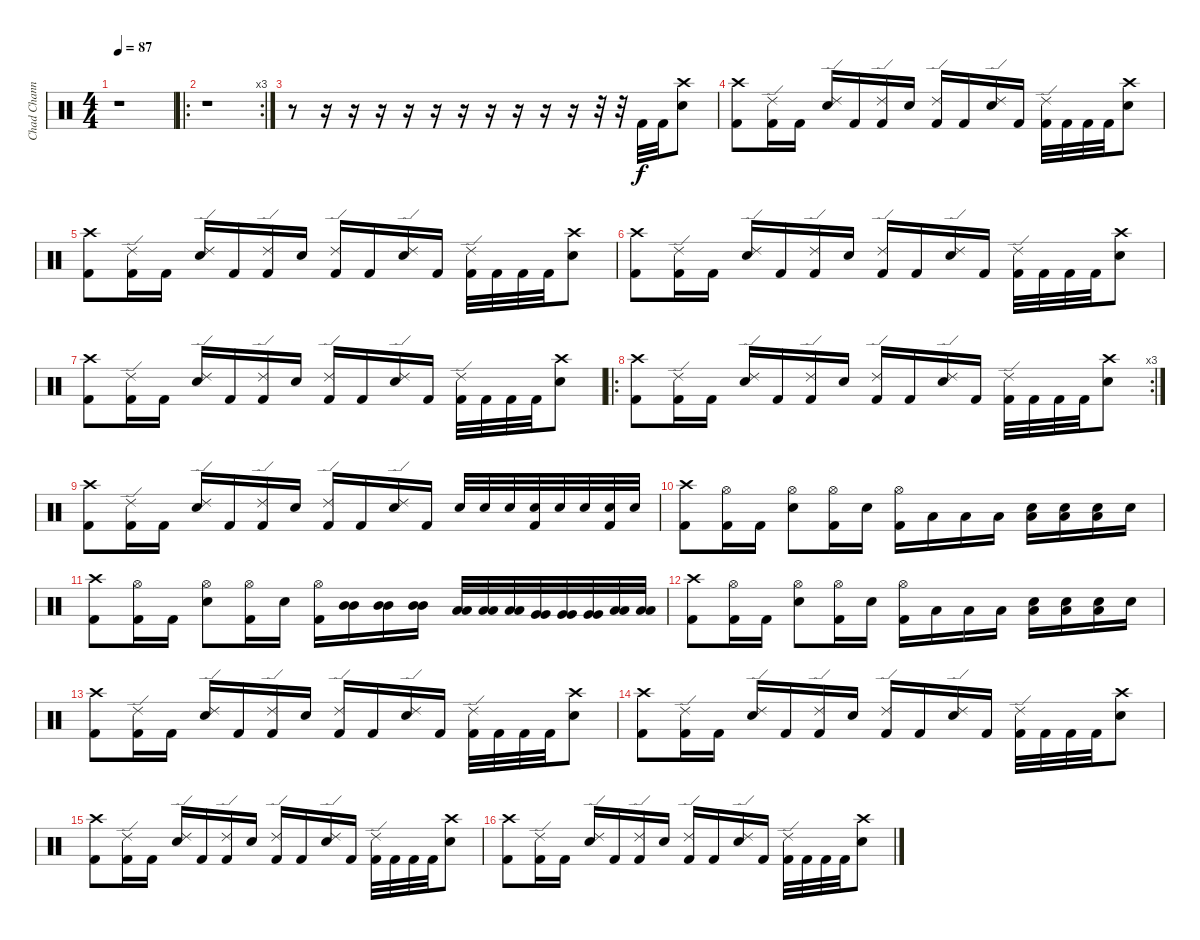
\track ("Chad Channing" "Chad Chann") {instrument percussion}
\staff {score}
\articulation defaults
\ts (4 4)
\tempo 87
\clef neutral
\ks c
r.1{dy f} |
\ro
\rc 3
r.1 |
r.8 r.16 r.16 r.16 r.16 r.16 r.16 r.16 r.16 r.16 r.16 r.32 r.32 "Kick (hit) 2".32 "Kick (hit) 2".32 ("Crash high (hit)" "Snare (hit) 2").8 |
("Crash high (hit)" "Kick (hit) 2").8 ("Ride (edge) 2" "Kick (hit) 2").16 "Kick (hit) 2".16 ("Ride (edge) 2" "Snare (hit) 2").16 "Kick (hit) 2".16 ("Ride (edge) 2" "Kick (hit) 2").16 "Snare (hit) 2".16 ("Ride (edge) 2" "Kick (hit) 2").16 "Kick (hit) 2".16 ("Ride (edge) 2" "Snare (hit) 2").16 "Kick (hit) 2".16 ("Ride (edge) 2" "Kick (hit) 2").32 "Kick (hit) 2".32 "Kick (hit) 2".32 "Kick (hit) 2".32 ("Crash high (hit)" "Snare (hit) 2").8 |
("Crash high (hit)" "Kick (hit) 2").8 ("Ride (edge) 2" "Kick (hit) 2").16 "Kick (hit) 2".16 ("Ride (edge) 2" "Snare (hit) 2").16 "Kick (hit) 2".16 ("Ride (edge) 2" "Kick (hit) 2").16 "Snare (hit) 2".16 ("Ride (edge) 2" "Kick (hit) 2").16 "Kick (hit) 2".16 ("Ride (edge) 2" "Snare (hit) 2").16 "Kick (hit) 2".16 ("Ride (edge) 2" "Kick (hit) 2").32 "Kick (hit) 2".32 "Kick (hit) 2".32 "Kick (hit) 2".32 ("Crash high (hit)" "Snare (hit) 2").8 |
("Crash high (hit)" "Kick (hit) 2").8 ("Ride (edge) 2" "Kick (hit) 2").16 "Kick (hit) 2".16 ("Ride (edge) 2" "Snare (hit) 2").16 "Kick (hit) 2".16 ("Ride (edge) 2" "Kick (hit) 2").16 "Snare (hit) 2".16 ("Ride (edge) 2" "Kick (hit) 2").16 "Kick (hit) 2".16 ("Ride (edge) 2" "Snare (hit) 2").16 "Kick (hit) 2".16 ("Ride (edge) 2" "Kick (hit) 2").32 "Kick (hit) 2".32 "Kick (hit) 2".32 "Kick (hit) 2".32 ("Crash high (hit)" "Snare (hit) 2").8 |
("Crash high (hit)" "Kick (hit) 2").8 ("Ride (edge) 2" "Kick (hit) 2").16 "Kick (hit) 2".16 ("Ride (edge) 2" "Snare (hit) 2").16 "Kick (hit) 2".16 ("Ride (edge) 2" "Kick (hit) 2").16 "Snare (hit) 2".16 ("Ride (edge) 2" "Kick (hit) 2").16 "Kick (hit) 2".16 ("Ride (edge) 2" "Snare (hit) 2").16 "Kick (hit) 2".16 ("Ride (edge) 2" "Kick (hit) 2").32 "Kick (hit) 2".32 "Kick (hit) 2".32 "Kick (hit) 2".32 ("Crash high (hit)" "Snare (hit) 2").8 |
\ro
\rc 3
("Crash high (hit)" "Kick (hit) 2").8 ("Ride (edge) 2" "Kick (hit) 2").16 "Kick (hit) 2".16 ("Ride (edge) 2" "Snare (hit) 2").16 "Kick (hit) 2".16 ("Ride (edge) 2" "Kick (hit) 2").16 "Snare (hit) 2".16 ("Ride (edge) 2" "Kick (hit) 2").16 "Kick (hit) 2".16 ("Ride (edge) 2" "Snare (hit) 2").16 "Kick (hit) 2".16 ("Ride (edge) 2" "Kick (hit) 2").32 "Kick (hit) 2".32 "Kick (hit) 2".32 "Kick (hit) 2".32 ("Crash high (hit)" "Snare (hit) 2").8 |
("Crash high (hit)" "Kick (hit) 2").8 ("Ride (edge) 2" "Kick (hit) 2").16 "Kick (hit) 2".16 ("Ride (edge) 2" "Snare (hit) 2").16 "Kick (hit) 2".16 ("Ride (edge) 2" "Kick (hit) 2").16 "Snare (hit) 2".16 ("Ride (edge) 2" "Kick (hit) 2").16 "Kick (hit) 2".16 ("Ride (edge) 2" "Snare (hit) 2").16 "Kick (hit) 2".16 "Snare (hit) 2".32 "Snare (hit) 2".32 "Snare (hit) 2".32 ("Snare (hit) 2" "Kick (hit) 2").32 "Snare (hit) 2".32 "Snare (hit) 2".32 ("Snare (hit) 2" "Kick (hit) 2").32 "Snare (hit) 2".32 |
("Crash high (hit)" "Kick (hit) 2").8 ("Hi-Hat (open)" "Kick (hit) 2").16 "Kick (hit) 2".16 ("Hi-Hat (open)" "Snare (hit) 2").8 ("Hi-Hat (open)" "Kick (hit) 2").16 "Snare (hit) 2".16 ("Hi-Hat (open)" "Kick (hit) 2").16 "Low Tom (hit)".16 "Low Tom (hit)".16 "Low Tom (hit)".16 ("Snare (hit) 2" "Low Tom (hit)").16 ("Snare (hit) 2" "Low Tom (hit)").16 ("Snare (hit) 2" "Low Tom (hit)").16 "Snare (hit) 2".16 |
("Crash high (hit)" "Kick (hit) 2").8 ("Hi-Hat (open)" "Kick (hit) 2").16 "Kick (hit) 2".16 ("Hi-Hat (open)" "Snare (hit) 2").8 ("Hi-Hat (open)" "Kick (hit) 2").16 "Snare (hit) 2".16 ("Hi-Hat (open)" "Kick (hit) 2").16 ("Mid Tom (hit)" "Mid Tom (hit)").16 ("Mid Tom (hit)" "Mid Tom (hit)").16 ("Mid Tom (hit)" "Mid Tom (hit)").16 ("Low Tom (hit)" "Low Tom (hit)").32 ("Low Tom (hit)" "Low Tom (hit)").32 ("Low Tom (hit)" "Low Tom (hit)").32 ("Very Low Tom (hit)" "Very Low Tom (hit)").32 ("Very Low Tom (hit)" "Very Low Tom (hit)").32 ("Very Low Tom (hit)" "Very Low Tom (hit)").32 ("Low Floor Tom (hit)" "Low Floor Tom (hit)").32 ("Low Floor Tom (hit)" "Low Floor Tom (hit)").32 |
("Crash high (hit)" "Kick (hit) 2").8 ("Hi-Hat (open)" "Kick (hit) 2").16 "Kick (hit) 2".16 ("Hi-Hat (open)" "Snare (hit) 2").8 ("Hi-Hat (open)" "Kick (hit) 2").16 "Snare (hit) 2".16 ("Hi-Hat (open)" "Kick (hit) 2").16 "Low Tom (hit)".16 "Low Tom (hit)".16 "Low Tom (hit)".16 ("Snare (hit) 2" "Low Tom (hit)").16 ("Snare (hit) 2" "Low Tom (hit)").16 ("Snare (hit) 2" "Low Tom (hit)").16 "Snare (hit) 2".16 |
("Crash high (hit)" "Kick (hit) 2").8 ("Ride (edge) 2" "Kick (hit) 2").16 "Kick (hit) 2".16 ("Ride (edge) 2" "Snare (hit) 2").16 "Kick (hit) 2".16 ("Ride (edge) 2" "Kick (hit) 2").16 "Snare (hit) 2".16 ("Ride (edge) 2" "Kick (hit) 2").16 "Kick (hit) 2".16 ("Ride (edge) 2" "Snare (hit) 2").16 "Kick (hit) 2".16 ("Ride (edge) 2" "Kick (hit) 2").32 "Kick (hit) 2".32 "Kick (hit) 2".32 "Kick (hit) 2".32 ("Crash high (hit)" "Snare (hit) 2").8 |
("Crash high (hit)" "Kick (hit) 2").8 ("Ride (edge) 2" "Kick (hit) 2").16 "Kick (hit) 2".16 ("Ride (edge) 2" "Snare (hit) 2").16 "Kick (hit) 2".16 ("Ride (edge) 2" "Kick (hit) 2").16 "Snare (hit) 2".16 ("Ride (edge) 2" "Kick (hit) 2").16 "Kick (hit) 2".16 ("Ride (edge) 2" "Snare (hit) 2").16 "Kick (hit) 2".16 ("Ride (edge) 2" "Kick (hit) 2").32 "Kick (hit) 2".32 "Kick (hit) 2".32 "Kick (hit) 2".32 ("Crash high (hit)" "Snare (hit) 2").8 |
("Crash high (hit)" "Kick (hit) 2").8 ("Ride (edge) 2" "Kick (hit) 2").16 "Kick (hit) 2".16 ("Ride (edge) 2" "Snare (hit) 2").16 "Kick (hit) 2".16 ("Ride (edge) 2" "Kick (hit) 2").16 "Snare (hit) 2".16 ("Ride (edge) 2" "Kick (hit) 2").16 "Kick (hit) 2".16 ("Ride (edge) 2" "Snare (hit) 2").16 "Kick (hit) 2".16 ("Ride (edge) 2" "Kick (hit) 2").32 "Kick (hit) 2".32 "Kick (hit) 2".32 "Kick (hit) 2".32 ("Crash high (hit)" "Snare (hit) 2").8 |
("Crash high (hit)" "Kick (hit) 2").8 ("Ride (edge) 2" "Kick (hit) 2").16 "Kick (hit) 2".16 ("Ride (edge) 2" "Snare (hit) 2").16 "Kick (hit) 2".16 ("Ride (edge) 2" "Kick (hit) 2").16 "Snare (hit) 2".16 ("Ride (edge) 2" "Kick (hit) 2").16 "Kick (hit) 2".16 ("Ride (edge) 2" "Snare (hit) 2").16 "Kick (hit) 2".16 ("Ride (edge) 2" "Kick (hit) 2").32 "Kick (hit) 2".32 "Kick (hit) 2".32 "Kick (hit) 2".32 ("Crash high (hit)" "Snare (hit) 2").8
